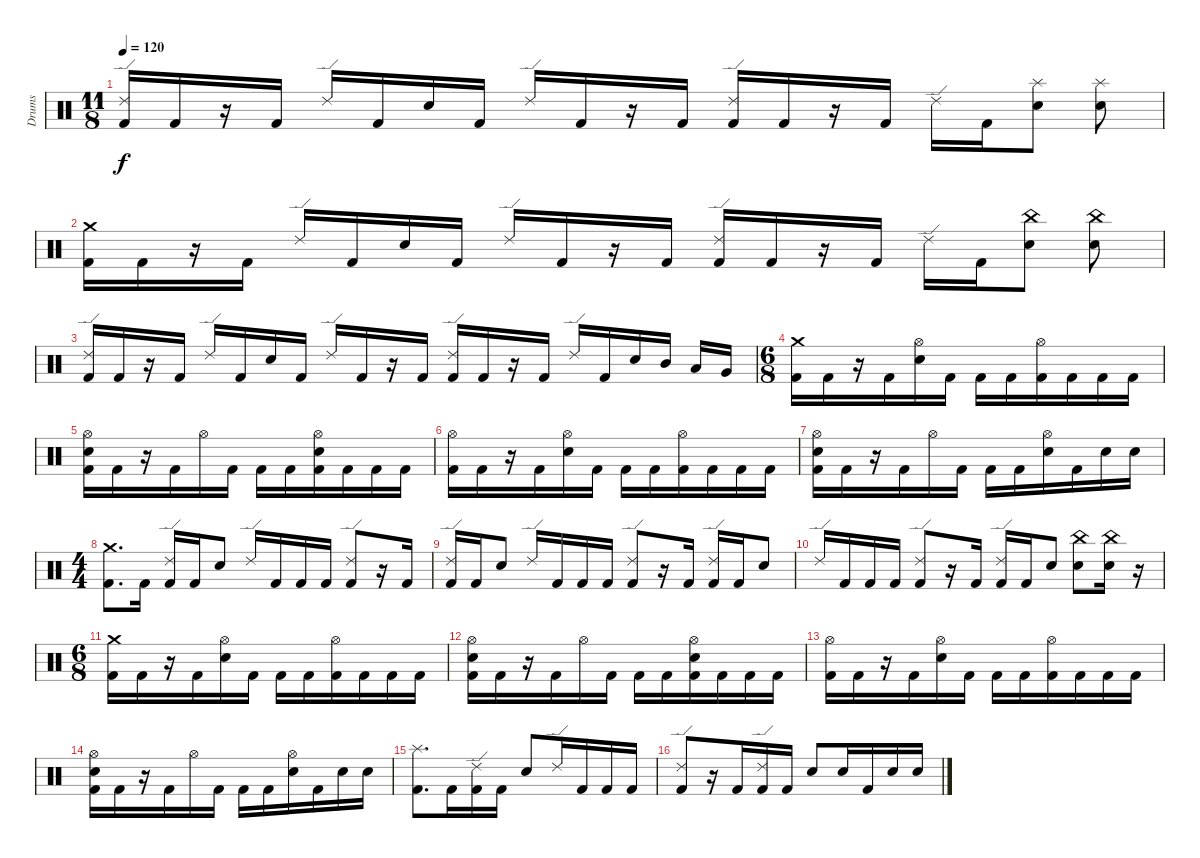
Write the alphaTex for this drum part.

\track ("Drums" "Drums") {instrument percussion}
\staff {score}
\articulation defaults
\ts (11 8)
\tempo 120
\clef neutral
\ks c
("Ride (edge) 2" "Kick (hit) 2").16{dy f} "Kick (hit) 2".16 r.16 "Kick (hit) 2".16 "Ride (edge) 2".16 "Kick (hit) 2".16 "Electric Snare (hit)".16 "Kick (hit) 2".16 "Ride (edge) 2".16 "Kick (hit) 2".16 r.16 "Kick (hit) 2".16 ("Ride (edge) 2" "Kick (hit) 2").16 "Kick (hit) 2".16 r.16 "Kick (hit) 2".16 "Ride (edge) 2".16 "Kick (hit) 2".16 ("Splash (hit)" "Electric Snare (hit)").8 ("Splash (hit)" "Electric Snare (hit)").8 |
("Crash medium (hit)" "Kick (hit) 2").16 "Kick (hit) 2".16 r.16 "Kick (hit) 2".16 "Ride (edge) 2".16 "Kick (hit) 2".16 "Electric Snare (hit)".16 "Kick (hit) 2".16 "Ride (edge) 2".16 "Kick (hit) 2".16 r.16 "Kick (hit) 2".16 ("Ride (edge) 2" "Kick (hit) 2").16 "Kick (hit) 2".16 r.16 "Kick (hit) 2".16 "Ride (edge) 2".16 "Kick (hit) 2".16 ("China (hit)" "Electric Snare (hit)").8 ("China (hit)" "Electric Snare (hit)").8 |
("Ride (edge) 2" "Kick (hit) 2").16 "Kick (hit) 2".16 r.16 "Kick (hit) 2".16 "Ride (edge) 2".16 "Kick (hit) 2".16 "Electric Snare (hit)".16 "Kick (hit) 2".16 "Ride (edge) 2".16 "Kick (hit) 2".16 r.16 "Kick (hit) 2".16 ("Ride (edge) 2" "Kick (hit) 2").16 "Kick (hit) 2".16 r.16 "Kick (hit) 2".16 "Ride (edge) 2".16 "Kick (hit) 2".16 "Electric Snare (hit)".16 "Mid Tom (hit)".16 "Low Tom (hit)".16 "Very Low Tom (hit)".16 |
\ts (6 8)
("Crash medium (hit)" "Kick (hit) 2").16 "Kick (hit) 2".16 r.16 "Kick (hit) 2".16 ("Electric Snare (hit)" "Hi-Hat (open)").16 "Kick (hit) 2".16 "Kick (hit) 2".16 "Kick (hit) 2".16 ("Hi-Hat (open)" "Kick (hit) 2").16 "Kick (hit) 2".16 "Kick (hit) 2".16 "Kick (hit) 2".16 |
("Electric Snare (hit)" "Hi-Hat (open)" "Kick (hit) 2").16 "Kick (hit) 2".16 r.16 "Kick (hit) 2".16 "Hi-Hat (open)".16 "Kick (hit) 2".16 "Kick (hit) 2".16 "Kick (hit) 2".16 ("Electric Snare (hit)" "Hi-Hat (open)" "Kick (hit) 2").16 "Kick (hit) 2".16 "Kick (hit) 2".16 "Kick (hit) 2".16 |
("Hi-Hat (open)" "Kick (hit) 2").16 "Kick (hit) 2".16 r.16 "Kick (hit) 2".16 ("Electric Snare (hit)" "Hi-Hat (open)").16 "Kick (hit) 2".16 "Kick (hit) 2".16 "Kick (hit) 2".16 ("Hi-Hat (open)" "Kick (hit) 2").16 "Kick (hit) 2".16 "Kick (hit) 2".16 "Kick (hit) 2".16 |
("Electric Snare (hit)" "Hi-Hat (open)" "Kick (hit) 2").16 "Kick (hit) 2".16 r.16 "Kick (hit) 2".16 "Hi-Hat (open)".16 "Kick (hit) 2".16 "Kick (hit) 2".16 "Kick (hit) 2".16 ("Electric Snare (hit)" "Hi-Hat (open)").16 "Kick (hit) 2".16 "Electric Snare (hit)".16 "Electric Snare (hit)".16 |
\ts (4 4)
("Crash medium (hit)" "Kick (hit) 2").8{d} "Kick (hit) 2".16 ("Ride (edge) 2" "Kick (hit) 2").16 "Kick (hit) 2".16 "Electric Snare (hit)".8 "Ride (edge) 2".16 "Kick (hit) 2".16 "Kick (hit) 2".16 "Kick (hit) 2".16 ("Ride (edge) 2" "Kick (hit) 2").8 r.16 "Kick (hit) 2".16 |
("Ride (edge) 2" "Kick (hit) 2").16 "Kick (hit) 2".16 "Electric Snare (hit)".8 "Ride (edge) 2".16 "Kick (hit) 2".16 "Kick (hit) 2".16 "Kick (hit) 2".16 ("Ride (edge) 2" "Kick (hit) 2").8 r.16 "Kick (hit) 2".16 ("Ride (edge) 2" "Kick (hit) 2").16 "Kick (hit) 2".16 "Electric Snare (hit)".8 |
"Ride (edge) 2".16 "Kick (hit) 2".16 "Kick (hit) 2".16 "Kick (hit) 2".16 ("Ride (edge) 2" "Kick (hit) 2").8 r.16 "Kick (hit) 2".16 ("Ride (edge) 2" "Kick (hit) 2").16 "Kick (hit) 2".16 "Electric Snare (hit)".8 ("Electric Snare (hit)" "China (hit)").8 ("Electric Snare (hit)" "China (hit)").16 r.16 |
\ts (6 8)
("Crash medium (hit)" "Kick (hit) 2").16 "Kick (hit) 2".16 r.16 "Kick (hit) 2".16 ("Electric Snare (hit)" "Hi-Hat (open)").16 "Kick (hit) 2".16 "Kick (hit) 2".16 "Kick (hit) 2".16 ("Hi-Hat (open)" "Kick (hit) 2").16 "Kick (hit) 2".16 "Kick (hit) 2".16 "Kick (hit) 2".16 |
("Electric Snare (hit)" "Hi-Hat (open)" "Kick (hit) 2").16 "Kick (hit) 2".16 r.16 "Kick (hit) 2".16 "Hi-Hat (open)".16 "Kick (hit) 2".16 "Kick (hit) 2".16 "Kick (hit) 2".16 ("Electric Snare (hit)" "Hi-Hat (open)" "Kick (hit) 2").16 "Kick (hit) 2".16 "Kick (hit) 2".16 "Kick (hit) 2".16 |
("Hi-Hat (open)" "Kick (hit) 2").16 "Kick (hit) 2".16 r.16 "Kick (hit) 2".16 ("Electric Snare (hit)" "Hi-Hat (open)").16 "Kick (hit) 2".16 "Kick (hit) 2".16 "Kick (hit) 2".16 ("Hi-Hat (open)" "Kick (hit) 2").16 "Kick (hit) 2".16 "Kick (hit) 2".16 "Kick (hit) 2".16 |
("Electric Snare (hit)" "Hi-Hat (open)" "Kick (hit) 2").16 "Kick (hit) 2".16 r.16 "Kick (hit) 2".16 "Hi-Hat (open)".16 "Kick (hit) 2".16 "Kick (hit) 2".16 "Kick (hit) 2".16 ("Electric Snare (hit)" "Hi-Hat (open)").16 "Kick (hit) 2".16 "Electric Snare (hit)".16 "Electric Snare (hit)".16 |
("Splash (hit)" "Kick (hit) 2").8{d} "Kick (hit) 2".16 ("Ride (edge) 2" "Kick (hit) 2").16 "Kick (hit) 2".16 "Electric Snare (hit)".8 "Ride (edge) 2".16 "Kick (hit) 2".16 "Kick (hit) 2".16 "Kick (hit) 2".16 |
("Ride (edge) 2" "Kick (hit) 2").8 r.16 "Kick (hit) 2".16 ("Ride (edge) 2" "Kick (hit) 2").16 "Kick (hit) 2".16 "Electric Snare (hit)".8 "Electric Snare (hit)".16 "Kick (hit) 2".16 "Electric Snare (hit)".16 "Electric Snare (hit)".16
